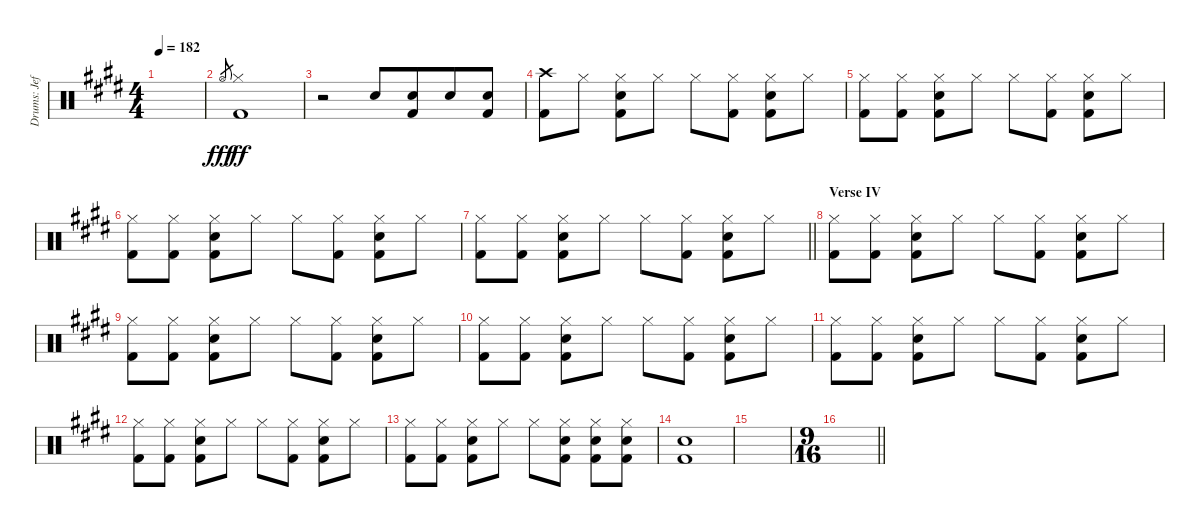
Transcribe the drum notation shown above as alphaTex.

\track ("Drums: Jeff" "Drums: Jef") {instrument percussion}
\staff {score}
\articulation defaults
\ts (4 4)
\tempo 182
\clef neutral
\ks e
|
"Hi-Hat (open)".8{gr dy fff} ("Hi-Hat (closed)" "Kick (hit) 2").1{dy ff} |
r.2 "Electric Snare (hit)".8 ("Electric Snare (hit)" "Kick (hit) 2").8{beam merge} "Electric Snare (hit)".8 ("Electric Snare (hit)" "Kick (hit) 2").8 |
("Crash high (hit)" "Kick (hit) 2").8 "Hi-Hat (closed)".8 ("Hi-Hat (closed)" "Electric Snare (hit)" "Kick (hit) 2").8 "Hi-Hat (closed)".8 "Hi-Hat (closed)".8 ("Hi-Hat (closed)" "Kick (hit) 2").8 ("Hi-Hat (closed)" "Electric Snare (hit)" "Kick (hit) 2").8 "Hi-Hat (closed)".8 |
("Hi-Hat (closed)" "Kick (hit) 2").8 ("Hi-Hat (closed)" "Kick (hit) 2").8 ("Hi-Hat (closed)" "Electric Snare (hit)" "Kick (hit) 2").8 "Hi-Hat (closed)".8 "Hi-Hat (closed)".8 ("Hi-Hat (closed)" "Kick (hit) 2").8 ("Hi-Hat (closed)" "Electric Snare (hit)" "Kick (hit) 2").8 "Hi-Hat (closed)".8 |
("Hi-Hat (closed)" "Kick (hit) 2").8 ("Hi-Hat (closed)" "Kick (hit) 2").8 ("Hi-Hat (closed)" "Electric Snare (hit)" "Kick (hit) 2").8 "Hi-Hat (closed)".8 "Hi-Hat (closed)".8 ("Hi-Hat (closed)" "Kick (hit) 2").8 ("Hi-Hat (closed)" "Electric Snare (hit)" "Kick (hit) 2").8 "Hi-Hat (closed)".8 |
\barLineRight lightlight
("Hi-Hat (closed)" "Kick (hit) 2").8 ("Hi-Hat (closed)" "Kick (hit) 2").8 ("Hi-Hat (closed)" "Electric Snare (hit)" "Kick (hit) 2").8 "Hi-Hat (closed)".8 "Hi-Hat (closed)".8 ("Hi-Hat (closed)" "Kick (hit) 2").8 ("Hi-Hat (closed)" "Electric Snare (hit)" "Kick (hit) 2").8 "Hi-Hat (closed)".8 |
\section ("" "Verse IV")
("Hi-Hat (closed)" "Kick (hit) 2").8 ("Hi-Hat (closed)" "Kick (hit) 2").8 ("Hi-Hat (closed)" "Electric Snare (hit)" "Kick (hit) 2").8 "Hi-Hat (closed)".8 "Hi-Hat (closed)".8 ("Hi-Hat (closed)" "Kick (hit) 2").8 ("Hi-Hat (closed)" "Electric Snare (hit)" "Kick (hit) 2").8 "Hi-Hat (closed)".8 |
("Hi-Hat (closed)" "Kick (hit) 2").8 ("Hi-Hat (closed)" "Kick (hit) 2").8 ("Hi-Hat (closed)" "Electric Snare (hit)" "Kick (hit) 2").8 "Hi-Hat (closed)".8 "Hi-Hat (closed)".8 ("Hi-Hat (closed)" "Kick (hit) 2").8 ("Hi-Hat (closed)" "Electric Snare (hit)" "Kick (hit) 2").8 "Hi-Hat (closed)".8 |
("Hi-Hat (closed)" "Kick (hit) 2").8 ("Hi-Hat (closed)" "Kick (hit) 2").8 ("Hi-Hat (closed)" "Electric Snare (hit)" "Kick (hit) 2").8 "Hi-Hat (closed)".8 "Hi-Hat (closed)".8 ("Hi-Hat (closed)" "Kick (hit) 2").8 ("Hi-Hat (closed)" "Electric Snare (hit)" "Kick (hit) 2").8 "Hi-Hat (closed)".8 |
("Hi-Hat (closed)" "Kick (hit) 2").8 ("Hi-Hat (closed)" "Kick (hit) 2").8 ("Hi-Hat (closed)" "Electric Snare (hit)" "Kick (hit) 2").8 "Hi-Hat (closed)".8 "Hi-Hat (closed)".8 ("Hi-Hat (closed)" "Kick (hit) 2").8 ("Hi-Hat (closed)" "Electric Snare (hit)" "Kick (hit) 2").8 "Hi-Hat (closed)".8 |
("Hi-Hat (closed)" "Kick (hit) 2").8 ("Hi-Hat (closed)" "Kick (hit) 2").8 ("Hi-Hat (closed)" "Electric Snare (hit)" "Kick (hit) 2").8 "Hi-Hat (closed)".8 "Hi-Hat (closed)".8 ("Hi-Hat (closed)" "Kick (hit) 2").8 ("Hi-Hat (closed)" "Electric Snare (hit)" "Kick (hit) 2").8 "Hi-Hat (closed)".8 |
("Hi-Hat (closed)" "Kick (hit) 2").8 ("Hi-Hat (closed)" "Kick (hit) 2").8 ("Hi-Hat (closed)" "Electric Snare (hit)" "Kick (hit) 2").8 "Hi-Hat (closed)".8 "Hi-Hat (closed)".8 ("Hi-Hat (closed)" "Electric Snare (hit)" "Kick (hit) 2").8 ("Hi-Hat (closed)" "Electric Snare (hit)" "Kick (hit) 2").8 ("Hi-Hat (closed)" "Electric Snare (hit)" "Kick (hit) 2").8 |
("Electric Snare (hit)" "Kick (hit) 2").1 |
|
\ts (9 16)
\barLineRight lightlight
